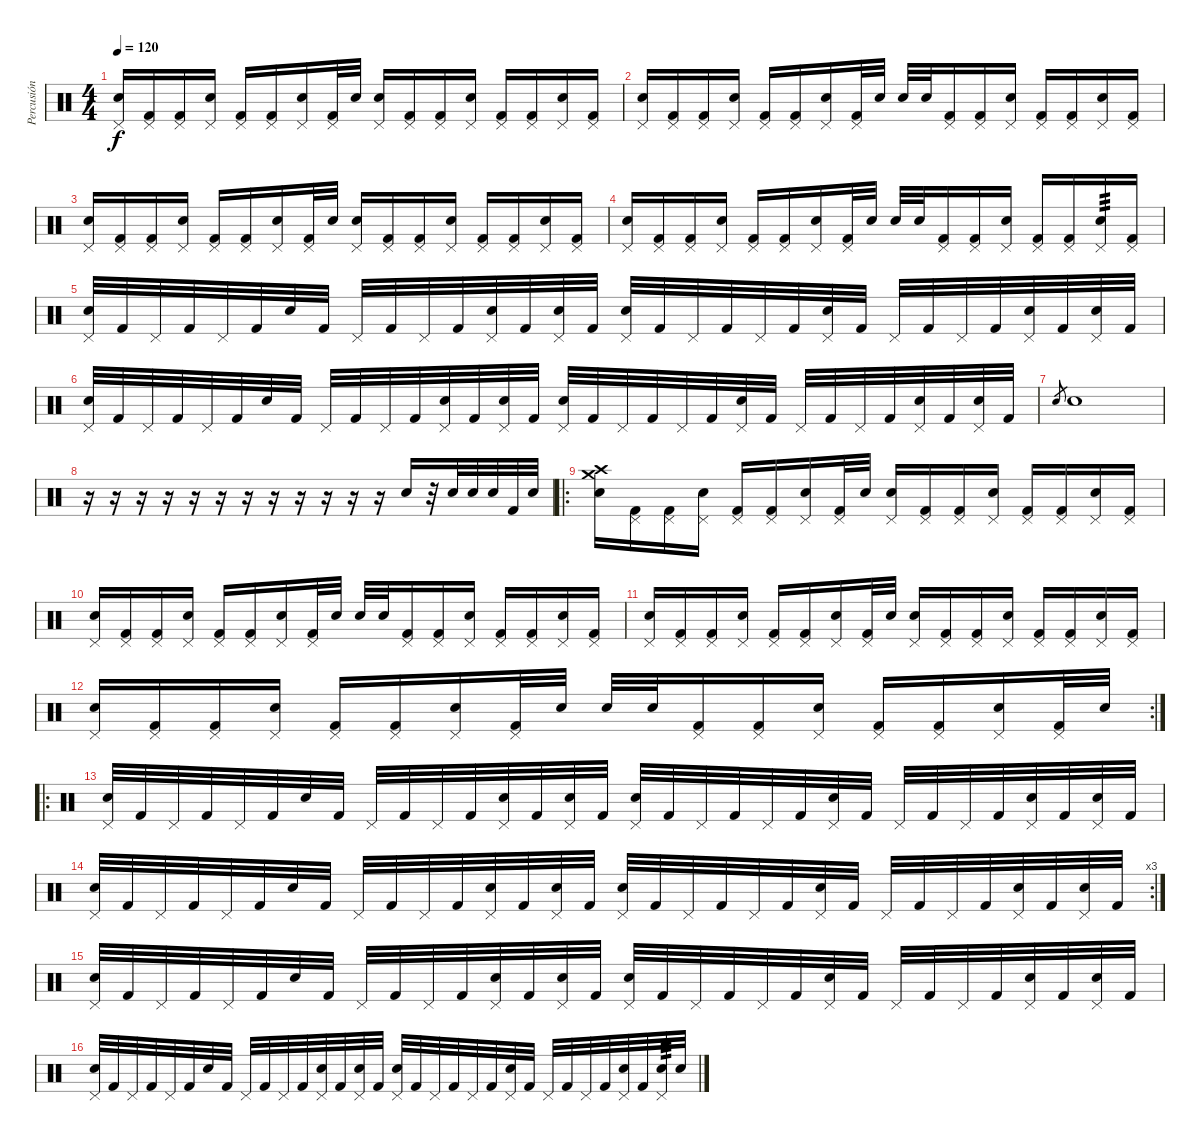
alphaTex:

\track ("Percusión" "Percusión") {instrument percussion}
\staff {score}
\articulation defaults
\ts (4 4)
\tempo 120
\clef neutral
\ks c
("Pedal Hi-Hat (hit)" "Electric Snare (hit)").16{dy f} ("Pedal Hi-Hat (hit)" "Kick (hit) 2").16 ("Pedal Hi-Hat (hit)" "Kick (hit) 2").16 ("Pedal Hi-Hat (hit)" "Electric Snare (hit)").16 ("Pedal Hi-Hat (hit)" "Kick (hit) 2").16 ("Pedal Hi-Hat (hit)" "Kick (hit) 2").16 ("Pedal Hi-Hat (hit)" "Electric Snare (hit)").16 ("Pedal Hi-Hat (hit)" "Kick (hit) 2").32 "Electric Snare (hit)".32 ("Pedal Hi-Hat (hit)" "Electric Snare (hit)").16 ("Pedal Hi-Hat (hit)" "Kick (hit) 2").16 ("Pedal Hi-Hat (hit)" "Kick (hit) 2").16 ("Pedal Hi-Hat (hit)" "Electric Snare (hit)").16 ("Pedal Hi-Hat (hit)" "Kick (hit) 2").16 ("Pedal Hi-Hat (hit)" "Kick (hit) 2").16 ("Pedal Hi-Hat (hit)" "Electric Snare (hit)").16 ("Pedal Hi-Hat (hit)" "Kick (hit) 2").16 |
("Pedal Hi-Hat (hit)" "Electric Snare (hit)").16 ("Pedal Hi-Hat (hit)" "Kick (hit) 2").16 ("Pedal Hi-Hat (hit)" "Kick (hit) 2").16 ("Pedal Hi-Hat (hit)" "Electric Snare (hit)").16 ("Pedal Hi-Hat (hit)" "Kick (hit) 2").16 ("Pedal Hi-Hat (hit)" "Kick (hit) 2").16 ("Pedal Hi-Hat (hit)" "Electric Snare (hit)").16 ("Pedal Hi-Hat (hit)" "Kick (hit) 2").32 "Electric Snare (hit)".32 "Electric Snare (hit)".32 "Electric Snare (hit)".32 ("Pedal Hi-Hat (hit)" "Kick (hit) 2").16 ("Pedal Hi-Hat (hit)" "Kick (hit) 2").16 ("Pedal Hi-Hat (hit)" "Electric Snare (hit)").16 ("Pedal Hi-Hat (hit)" "Kick (hit) 2").16 ("Pedal Hi-Hat (hit)" "Kick (hit) 2").16 ("Pedal Hi-Hat (hit)" "Electric Snare (hit)").16 ("Pedal Hi-Hat (hit)" "Kick (hit) 2").16 |
("Pedal Hi-Hat (hit)" "Electric Snare (hit)").16 ("Pedal Hi-Hat (hit)" "Kick (hit) 2").16 ("Pedal Hi-Hat (hit)" "Kick (hit) 2").16 ("Pedal Hi-Hat (hit)" "Electric Snare (hit)").16 ("Pedal Hi-Hat (hit)" "Kick (hit) 2").16 ("Pedal Hi-Hat (hit)" "Kick (hit) 2").16 ("Pedal Hi-Hat (hit)" "Electric Snare (hit)").16 ("Pedal Hi-Hat (hit)" "Kick (hit) 2").32 "Electric Snare (hit)".32 ("Pedal Hi-Hat (hit)" "Electric Snare (hit)").16 ("Pedal Hi-Hat (hit)" "Kick (hit) 2").16 ("Pedal Hi-Hat (hit)" "Kick (hit) 2").16 ("Pedal Hi-Hat (hit)" "Electric Snare (hit)").16 ("Pedal Hi-Hat (hit)" "Kick (hit) 2").16 ("Pedal Hi-Hat (hit)" "Kick (hit) 2").16 ("Pedal Hi-Hat (hit)" "Electric Snare (hit)").16 ("Pedal Hi-Hat (hit)" "Kick (hit) 2").16 |
("Pedal Hi-Hat (hit)" "Electric Snare (hit)").16 ("Pedal Hi-Hat (hit)" "Kick (hit) 2").16 ("Pedal Hi-Hat (hit)" "Kick (hit) 2").16 ("Pedal Hi-Hat (hit)" "Electric Snare (hit)").16 ("Pedal Hi-Hat (hit)" "Kick (hit) 2").16 ("Pedal Hi-Hat (hit)" "Kick (hit) 2").16 ("Pedal Hi-Hat (hit)" "Electric Snare (hit)").16 ("Pedal Hi-Hat (hit)" "Kick (hit) 2").32 "Electric Snare (hit)".32 "Electric Snare (hit)".32 "Electric Snare (hit)".32 ("Pedal Hi-Hat (hit)" "Kick (hit) 2").16 ("Pedal Hi-Hat (hit)" "Kick (hit) 2").16 ("Pedal Hi-Hat (hit)" "Electric Snare (hit)").16 ("Pedal Hi-Hat (hit)" "Kick (hit) 2").16 ("Pedal Hi-Hat (hit)" "Kick (hit) 2").16 ("Pedal Hi-Hat (hit)" "Electric Snare (hit)").16{tp 3} ("Pedal Hi-Hat (hit)" "Kick (hit) 2").16 |
("Pedal Hi-Hat (hit)" "Electric Snare (hit)").32 "Kick (hit) 2".32 "Pedal Hi-Hat (hit)".32 "Kick (hit) 2".32 "Pedal Hi-Hat (hit)".32 "Kick (hit) 2".32 "Electric Snare (hit)".32 "Kick (hit) 2".32 "Pedal Hi-Hat (hit)".32 "Kick (hit) 2".32 "Pedal Hi-Hat (hit)".32 "Kick (hit) 2".32 ("Pedal Hi-Hat (hit)" "Electric Snare (hit)").32 "Kick (hit) 2".32 ("Pedal Hi-Hat (hit)" "Electric Snare (hit)").32 "Kick (hit) 2".32 ("Pedal Hi-Hat (hit)" "Electric Snare (hit)").32 "Kick (hit) 2".32 "Pedal Hi-Hat (hit)".32 "Kick (hit) 2".32 "Pedal Hi-Hat (hit)".32 "Kick (hit) 2".32 ("Pedal Hi-Hat (hit)" "Electric Snare (hit)").32 "Kick (hit) 2".32 "Pedal Hi-Hat (hit)".32 "Kick (hit) 2".32 "Pedal Hi-Hat (hit)".32 "Kick (hit) 2".32 ("Pedal Hi-Hat (hit)" "Electric Snare (hit)").32 "Kick (hit) 2".32 ("Pedal Hi-Hat (hit)" "Electric Snare (hit)").32 "Kick (hit) 2".32 |
("Pedal Hi-Hat (hit)" "Electric Snare (hit)").32 "Kick (hit) 2".32 "Pedal Hi-Hat (hit)".32 "Kick (hit) 2".32 "Pedal Hi-Hat (hit)".32 "Kick (hit) 2".32 "Electric Snare (hit)".32 "Kick (hit) 2".32 "Pedal Hi-Hat (hit)".32 "Kick (hit) 2".32 "Pedal Hi-Hat (hit)".32 "Kick (hit) 2".32 ("Pedal Hi-Hat (hit)" "Electric Snare (hit)").32 "Kick (hit) 2".32 ("Pedal Hi-Hat (hit)" "Electric Snare (hit)").32 "Kick (hit) 2".32 ("Pedal Hi-Hat (hit)" "Electric Snare (hit)").32 "Kick (hit) 2".32 "Pedal Hi-Hat (hit)".32 "Kick (hit) 2".32 "Pedal Hi-Hat (hit)".32 "Kick (hit) 2".32 ("Pedal Hi-Hat (hit)" "Electric Snare (hit)").32 "Kick (hit) 2".32 "Pedal Hi-Hat (hit)".32 "Kick (hit) 2".32 "Pedal Hi-Hat (hit)".32 "Kick (hit) 2".32 ("Pedal Hi-Hat (hit)" "Electric Snare (hit)").32 "Kick (hit) 2".32 ("Pedal Hi-Hat (hit)" "Electric Snare (hit)").32 "Kick (hit) 2".32 |
"Electric Snare (hit)".8{gr} "Electric Snare (hit)".1 |
r.16 r.16 r.16 r.16 r.16 r.16 r.16 r.16 r.16 r.16 r.16 r.16 "Electric Snare (hit)".16 r.32 "Electric Snare (hit)".32 "Electric Snare (hit)".32 "Electric Snare (hit)".32 "Kick (hit) 2".32 "Electric Snare (hit)".32 |
\ro
("Crash high (hit)" "Crash medium (hit)" "Electric Snare (hit)").16 ("Pedal Hi-Hat (hit)" "Kick (hit) 2").16 ("Pedal Hi-Hat (hit)" "Kick (hit) 2").16 ("Pedal Hi-Hat (hit)" "Electric Snare (hit)").16 ("Pedal Hi-Hat (hit)" "Kick (hit) 2").16 ("Pedal Hi-Hat (hit)" "Kick (hit) 2").16 ("Pedal Hi-Hat (hit)" "Electric Snare (hit)").16 ("Pedal Hi-Hat (hit)" "Kick (hit) 2").32 "Electric Snare (hit)".32 ("Pedal Hi-Hat (hit)" "Electric Snare (hit)").16 ("Pedal Hi-Hat (hit)" "Kick (hit) 2").16 ("Pedal Hi-Hat (hit)" "Kick (hit) 2").16 ("Pedal Hi-Hat (hit)" "Electric Snare (hit)").16 ("Pedal Hi-Hat (hit)" "Kick (hit) 2").16 ("Pedal Hi-Hat (hit)" "Kick (hit) 2").16 ("Pedal Hi-Hat (hit)" "Electric Snare (hit)").16 ("Pedal Hi-Hat (hit)" "Kick (hit) 2").16 |
("Pedal Hi-Hat (hit)" "Electric Snare (hit)").16 ("Pedal Hi-Hat (hit)" "Kick (hit) 2").16 ("Pedal Hi-Hat (hit)" "Kick (hit) 2").16 ("Pedal Hi-Hat (hit)" "Electric Snare (hit)").16 ("Pedal Hi-Hat (hit)" "Kick (hit) 2").16 ("Pedal Hi-Hat (hit)" "Kick (hit) 2").16 ("Pedal Hi-Hat (hit)" "Electric Snare (hit)").16 ("Pedal Hi-Hat (hit)" "Kick (hit) 2").32 "Electric Snare (hit)".32 "Electric Snare (hit)".32 "Electric Snare (hit)".32 ("Pedal Hi-Hat (hit)" "Kick (hit) 2").16 ("Pedal Hi-Hat (hit)" "Kick (hit) 2").16 ("Pedal Hi-Hat (hit)" "Electric Snare (hit)").16 ("Pedal Hi-Hat (hit)" "Kick (hit) 2").16 ("Pedal Hi-Hat (hit)" "Kick (hit) 2").16 ("Pedal Hi-Hat (hit)" "Electric Snare (hit)").16 ("Pedal Hi-Hat (hit)" "Kick (hit) 2").16 |
("Pedal Hi-Hat (hit)" "Electric Snare (hit)").16 ("Pedal Hi-Hat (hit)" "Kick (hit) 2").16 ("Pedal Hi-Hat (hit)" "Kick (hit) 2").16 ("Pedal Hi-Hat (hit)" "Electric Snare (hit)").16 ("Pedal Hi-Hat (hit)" "Kick (hit) 2").16 ("Pedal Hi-Hat (hit)" "Kick (hit) 2").16 ("Pedal Hi-Hat (hit)" "Electric Snare (hit)").16 ("Pedal Hi-Hat (hit)" "Kick (hit) 2").32 "Electric Snare (hit)".32 ("Pedal Hi-Hat (hit)" "Electric Snare (hit)").16 ("Pedal Hi-Hat (hit)" "Kick (hit) 2").16 ("Pedal Hi-Hat (hit)" "Kick (hit) 2").16 ("Pedal Hi-Hat (hit)" "Electric Snare (hit)").16 ("Pedal Hi-Hat (hit)" "Kick (hit) 2").16 ("Pedal Hi-Hat (hit)" "Kick (hit) 2").16 ("Pedal Hi-Hat (hit)" "Electric Snare (hit)").16 ("Pedal Hi-Hat (hit)" "Kick (hit) 2").16 |
\rc 2
("Pedal Hi-Hat (hit)" "Electric Snare (hit)").16 ("Pedal Hi-Hat (hit)" "Kick (hit) 2").16 ("Pedal Hi-Hat (hit)" "Kick (hit) 2").16 ("Pedal Hi-Hat (hit)" "Electric Snare (hit)").16 ("Pedal Hi-Hat (hit)" "Kick (hit) 2").16 ("Pedal Hi-Hat (hit)" "Kick (hit) 2").16 ("Pedal Hi-Hat (hit)" "Electric Snare (hit)").16 ("Pedal Hi-Hat (hit)" "Kick (hit) 2").32 "Electric Snare (hit)".32 "Electric Snare (hit)".32 "Electric Snare (hit)".32 ("Pedal Hi-Hat (hit)" "Kick (hit) 2").16 ("Pedal Hi-Hat (hit)" "Kick (hit) 2").16 ("Pedal Hi-Hat (hit)" "Electric Snare (hit)").16 ("Pedal Hi-Hat (hit)" "Kick (hit) 2").16 ("Pedal Hi-Hat (hit)" "Kick (hit) 2").16 ("Pedal Hi-Hat (hit)" "Electric Snare (hit)").16 ("Pedal Hi-Hat (hit)" "Kick (hit) 2").32 "Electric Snare (hit)".32 |
\ro
("Pedal Hi-Hat (hit)" "Electric Snare (hit)").32 "Kick (hit) 2".32 "Pedal Hi-Hat (hit)".32 "Kick (hit) 2".32 "Pedal Hi-Hat (hit)".32 "Kick (hit) 2".32 "Electric Snare (hit)".32 "Kick (hit) 2".32 "Pedal Hi-Hat (hit)".32 "Kick (hit) 2".32 "Pedal Hi-Hat (hit)".32 "Kick (hit) 2".32 ("Pedal Hi-Hat (hit)" "Electric Snare (hit)").32 "Kick (hit) 2".32 ("Pedal Hi-Hat (hit)" "Electric Snare (hit)").32 "Kick (hit) 2".32 ("Pedal Hi-Hat (hit)" "Electric Snare (hit)").32 "Kick (hit) 2".32 "Pedal Hi-Hat (hit)".32 "Kick (hit) 2".32 "Pedal Hi-Hat (hit)".32 "Kick (hit) 2".32 ("Pedal Hi-Hat (hit)" "Electric Snare (hit)").32 "Kick (hit) 2".32 "Pedal Hi-Hat (hit)".32 "Kick (hit) 2".32 "Pedal Hi-Hat (hit)".32 "Kick (hit) 2".32 ("Pedal Hi-Hat (hit)" "Electric Snare (hit)").32 "Kick (hit) 2".32 ("Pedal Hi-Hat (hit)" "Electric Snare (hit)").32 "Kick (hit) 2".32 |
\rc 3
("Pedal Hi-Hat (hit)" "Electric Snare (hit)").32 "Kick (hit) 2".32 "Pedal Hi-Hat (hit)".32 "Kick (hit) 2".32 "Pedal Hi-Hat (hit)".32 "Kick (hit) 2".32 "Electric Snare (hit)".32 "Kick (hit) 2".32 "Pedal Hi-Hat (hit)".32 "Kick (hit) 2".32 "Pedal Hi-Hat (hit)".32 "Kick (hit) 2".32 ("Pedal Hi-Hat (hit)" "Electric Snare (hit)").32 "Kick (hit) 2".32 ("Pedal Hi-Hat (hit)" "Electric Snare (hit)").32 "Kick (hit) 2".32 ("Pedal Hi-Hat (hit)" "Electric Snare (hit)").32 "Kick (hit) 2".32 "Pedal Hi-Hat (hit)".32 "Kick (hit) 2".32 "Pedal Hi-Hat (hit)".32 "Kick (hit) 2".32 ("Pedal Hi-Hat (hit)" "Electric Snare (hit)").32 "Kick (hit) 2".32 "Pedal Hi-Hat (hit)".32 "Kick (hit) 2".32 "Pedal Hi-Hat (hit)".32 "Kick (hit) 2".32 ("Pedal Hi-Hat (hit)" "Electric Snare (hit)").32 "Kick (hit) 2".32 ("Pedal Hi-Hat (hit)" "Electric Snare (hit)").32 "Kick (hit) 2".32 |
("Pedal Hi-Hat (hit)" "Electric Snare (hit)").32 "Kick (hit) 2".32 "Pedal Hi-Hat (hit)".32 "Kick (hit) 2".32 "Pedal Hi-Hat (hit)".32 "Kick (hit) 2".32 "Electric Snare (hit)".32 "Kick (hit) 2".32 "Pedal Hi-Hat (hit)".32 "Kick (hit) 2".32 "Pedal Hi-Hat (hit)".32 "Kick (hit) 2".32 ("Pedal Hi-Hat (hit)" "Electric Snare (hit)").32 "Kick (hit) 2".32 ("Pedal Hi-Hat (hit)" "Electric Snare (hit)").32 "Kick (hit) 2".32 ("Pedal Hi-Hat (hit)" "Electric Snare (hit)").32 "Kick (hit) 2".32 "Pedal Hi-Hat (hit)".32 "Kick (hit) 2".32 "Pedal Hi-Hat (hit)".32 "Kick (hit) 2".32 ("Pedal Hi-Hat (hit)" "Electric Snare (hit)").32 "Kick (hit) 2".32 "Pedal Hi-Hat (hit)".32 "Kick (hit) 2".32 "Pedal Hi-Hat (hit)".32 "Kick (hit) 2".32 ("Pedal Hi-Hat (hit)" "Electric Snare (hit)").32 "Kick (hit) 2".32 ("Pedal Hi-Hat (hit)" "Electric Snare (hit)").32 "Kick (hit) 2".32 |
("Pedal Hi-Hat (hit)" "Electric Snare (hit)").32 "Kick (hit) 2".32 "Pedal Hi-Hat (hit)".32 "Kick (hit) 2".32 "Pedal Hi-Hat (hit)".32 "Kick (hit) 2".32 "Electric Snare (hit)".32 "Kick (hit) 2".32 "Pedal Hi-Hat (hit)".32 "Kick (hit) 2".32 "Pedal Hi-Hat (hit)".32 "Kick (hit) 2".32 ("Pedal Hi-Hat (hit)" "Electric Snare (hit)").32 "Kick (hit) 2".32 ("Pedal Hi-Hat (hit)" "Electric Snare (hit)").32 "Kick (hit) 2".32 ("Pedal Hi-Hat (hit)" "Electric Snare (hit)").32 "Kick (hit) 2".32 "Pedal Hi-Hat (hit)".32 "Kick (hit) 2".32 "Pedal Hi-Hat (hit)".32 "Kick (hit) 2".32 ("Pedal Hi-Hat (hit)" "Electric Snare (hit)").32 "Kick (hit) 2".32 "Pedal Hi-Hat (hit)".32 "Kick (hit) 2".32 "Pedal Hi-Hat (hit)".32 "Kick (hit) 2".32 ("Pedal Hi-Hat (hit)" "Electric Snare (hit)").32 "Kick (hit) 2".32 ("Pedal Hi-Hat (hit)" "Electric Snare (hit)").32{tp 3} "Electric Snare (hit)".32
